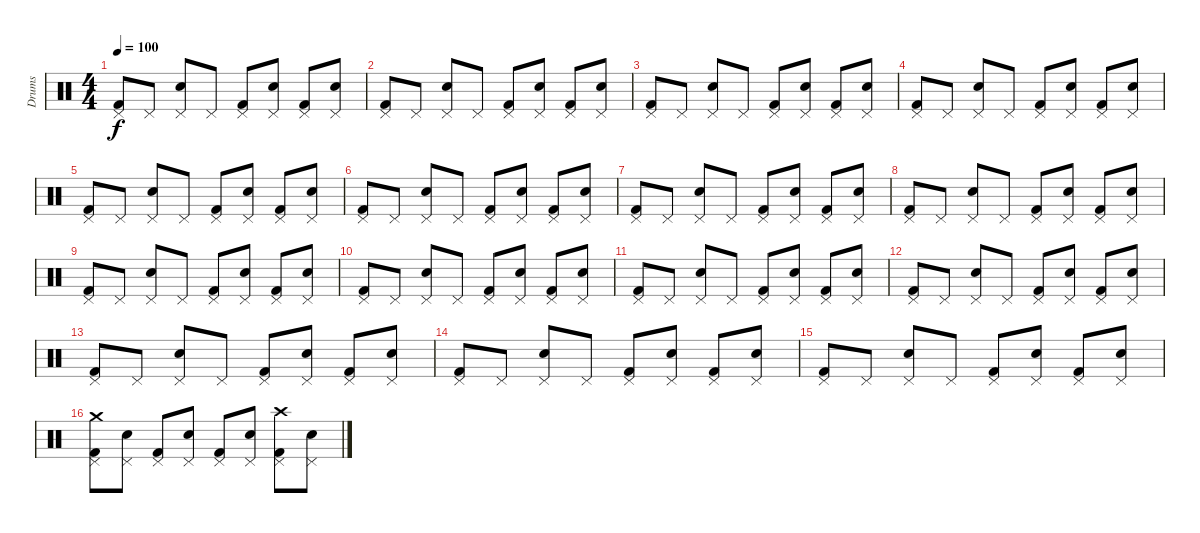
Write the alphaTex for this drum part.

\track ("Drums" "Drums") {instrument percussion}
\staff {score}
\articulation defaults
\ts (4 4)
\tempo 100
\clef neutral
\ks c
("Pedal Hi-Hat (hit)" "Kick (hit) 2").8{dy f} "Pedal Hi-Hat (hit)".8 ("Pedal Hi-Hat (hit)" "Electric Snare (hit)").8 "Pedal Hi-Hat (hit)".8 ("Pedal Hi-Hat (hit)" "Kick (hit) 2").8 ("Pedal Hi-Hat (hit)" "Electric Snare (hit)").8 ("Pedal Hi-Hat (hit)" "Kick (hit) 2").8 ("Pedal Hi-Hat (hit)" "Electric Snare (hit)").8 |
("Pedal Hi-Hat (hit)" "Kick (hit) 2").8 "Pedal Hi-Hat (hit)".8 ("Pedal Hi-Hat (hit)" "Electric Snare (hit)").8 "Pedal Hi-Hat (hit)".8 ("Pedal Hi-Hat (hit)" "Kick (hit) 2").8 ("Pedal Hi-Hat (hit)" "Electric Snare (hit)").8 ("Pedal Hi-Hat (hit)" "Kick (hit) 2").8 ("Pedal Hi-Hat (hit)" "Electric Snare (hit)").8 |
("Pedal Hi-Hat (hit)" "Kick (hit) 2").8 "Pedal Hi-Hat (hit)".8 ("Pedal Hi-Hat (hit)" "Electric Snare (hit)").8 "Pedal Hi-Hat (hit)".8 ("Pedal Hi-Hat (hit)" "Kick (hit) 2").8 ("Pedal Hi-Hat (hit)" "Electric Snare (hit)").8 ("Pedal Hi-Hat (hit)" "Kick (hit) 2").8 ("Pedal Hi-Hat (hit)" "Electric Snare (hit)").8 |
("Pedal Hi-Hat (hit)" "Kick (hit) 2").8 "Pedal Hi-Hat (hit)".8 ("Pedal Hi-Hat (hit)" "Electric Snare (hit)").8 "Pedal Hi-Hat (hit)".8 ("Pedal Hi-Hat (hit)" "Kick (hit) 2").8 ("Pedal Hi-Hat (hit)" "Electric Snare (hit)").8 ("Pedal Hi-Hat (hit)" "Kick (hit) 2").8 ("Pedal Hi-Hat (hit)" "Electric Snare (hit)").8 |
("Pedal Hi-Hat (hit)" "Kick (hit) 2").8 "Pedal Hi-Hat (hit)".8 ("Pedal Hi-Hat (hit)" "Electric Snare (hit)").8 "Pedal Hi-Hat (hit)".8 ("Pedal Hi-Hat (hit)" "Kick (hit) 2").8 ("Pedal Hi-Hat (hit)" "Electric Snare (hit)").8 ("Pedal Hi-Hat (hit)" "Kick (hit) 2").8 ("Pedal Hi-Hat (hit)" "Electric Snare (hit)").8 |
("Pedal Hi-Hat (hit)" "Kick (hit) 2").8 "Pedal Hi-Hat (hit)".8 ("Pedal Hi-Hat (hit)" "Electric Snare (hit)").8 "Pedal Hi-Hat (hit)".8 ("Pedal Hi-Hat (hit)" "Kick (hit) 2").8 ("Pedal Hi-Hat (hit)" "Electric Snare (hit)").8 ("Pedal Hi-Hat (hit)" "Kick (hit) 2").8 ("Pedal Hi-Hat (hit)" "Electric Snare (hit)").8 |
("Pedal Hi-Hat (hit)" "Kick (hit) 2").8 "Pedal Hi-Hat (hit)".8 ("Pedal Hi-Hat (hit)" "Electric Snare (hit)").8 "Pedal Hi-Hat (hit)".8 ("Pedal Hi-Hat (hit)" "Kick (hit) 2").8 ("Pedal Hi-Hat (hit)" "Electric Snare (hit)").8 ("Pedal Hi-Hat (hit)" "Kick (hit) 2").8 ("Pedal Hi-Hat (hit)" "Electric Snare (hit)").8 |
("Pedal Hi-Hat (hit)" "Kick (hit) 2").8 "Pedal Hi-Hat (hit)".8 ("Pedal Hi-Hat (hit)" "Electric Snare (hit)").8 "Pedal Hi-Hat (hit)".8 ("Pedal Hi-Hat (hit)" "Kick (hit) 2").8 ("Pedal Hi-Hat (hit)" "Electric Snare (hit)").8 ("Pedal Hi-Hat (hit)" "Kick (hit) 2").8 ("Pedal Hi-Hat (hit)" "Electric Snare (hit)").8 |
("Pedal Hi-Hat (hit)" "Kick (hit) 2").8 "Pedal Hi-Hat (hit)".8 ("Pedal Hi-Hat (hit)" "Electric Snare (hit)").8 "Pedal Hi-Hat (hit)".8 ("Pedal Hi-Hat (hit)" "Kick (hit) 2").8 ("Pedal Hi-Hat (hit)" "Electric Snare (hit)").8 ("Pedal Hi-Hat (hit)" "Kick (hit) 2").8 ("Pedal Hi-Hat (hit)" "Electric Snare (hit)").8 |
("Pedal Hi-Hat (hit)" "Kick (hit) 2").8 "Pedal Hi-Hat (hit)".8 ("Pedal Hi-Hat (hit)" "Electric Snare (hit)").8 "Pedal Hi-Hat (hit)".8 ("Pedal Hi-Hat (hit)" "Kick (hit) 2").8 ("Pedal Hi-Hat (hit)" "Electric Snare (hit)").8 ("Pedal Hi-Hat (hit)" "Kick (hit) 2").8 ("Pedal Hi-Hat (hit)" "Electric Snare (hit)").8 |
("Pedal Hi-Hat (hit)" "Kick (hit) 2").8 "Pedal Hi-Hat (hit)".8 ("Pedal Hi-Hat (hit)" "Electric Snare (hit)").8 "Pedal Hi-Hat (hit)".8 ("Pedal Hi-Hat (hit)" "Kick (hit) 2").8 ("Pedal Hi-Hat (hit)" "Electric Snare (hit)").8 ("Pedal Hi-Hat (hit)" "Kick (hit) 2").8 ("Pedal Hi-Hat (hit)" "Electric Snare (hit)").8 |
("Pedal Hi-Hat (hit)" "Kick (hit) 2").8 "Pedal Hi-Hat (hit)".8 ("Pedal Hi-Hat (hit)" "Electric Snare (hit)").8 "Pedal Hi-Hat (hit)".8 ("Pedal Hi-Hat (hit)" "Kick (hit) 2").8 ("Pedal Hi-Hat (hit)" "Electric Snare (hit)").8 ("Pedal Hi-Hat (hit)" "Kick (hit) 2").8 ("Pedal Hi-Hat (hit)" "Electric Snare (hit)").8 |
("Pedal Hi-Hat (hit)" "Kick (hit) 2").8 "Pedal Hi-Hat (hit)".8 ("Pedal Hi-Hat (hit)" "Electric Snare (hit)").8 "Pedal Hi-Hat (hit)".8 ("Pedal Hi-Hat (hit)" "Kick (hit) 2").8 ("Pedal Hi-Hat (hit)" "Electric Snare (hit)").8 ("Pedal Hi-Hat (hit)" "Kick (hit) 2").8 ("Pedal Hi-Hat (hit)" "Electric Snare (hit)").8 |
("Pedal Hi-Hat (hit)" "Kick (hit) 2").8 "Pedal Hi-Hat (hit)".8 ("Pedal Hi-Hat (hit)" "Electric Snare (hit)").8 "Pedal Hi-Hat (hit)".8 ("Pedal Hi-Hat (hit)" "Kick (hit) 2").8 ("Pedal Hi-Hat (hit)" "Electric Snare (hit)").8 ("Pedal Hi-Hat (hit)" "Kick (hit) 2").8 ("Pedal Hi-Hat (hit)" "Electric Snare (hit)").8 |
("Pedal Hi-Hat (hit)" "Kick (hit) 2").8 "Pedal Hi-Hat (hit)".8 ("Pedal Hi-Hat (hit)" "Electric Snare (hit)").8 "Pedal Hi-Hat (hit)".8 ("Pedal Hi-Hat (hit)" "Kick (hit) 2").8 ("Pedal Hi-Hat (hit)" "Electric Snare (hit)").8 ("Pedal Hi-Hat (hit)" "Kick (hit) 2").8 ("Pedal Hi-Hat (hit)" "Electric Snare (hit)").8 |
("Crash medium (hit)" "Pedal Hi-Hat (hit)" "Kick (hit) 2").8 ("Pedal Hi-Hat (hit)" "Electric Snare (hit)").8 ("Pedal Hi-Hat (hit)" "Kick (hit) 2").8 ("Pedal Hi-Hat (hit)" "Electric Snare (hit)").8 ("Pedal Hi-Hat (hit)" "Kick (hit) 2").8 ("Pedal Hi-Hat (hit)" "Electric Snare (hit)").8 ("Crash high (hit)" "Pedal Hi-Hat (hit)" "Kick (hit) 2").8 ("Pedal Hi-Hat (hit)" "Electric Snare (hit)").8
